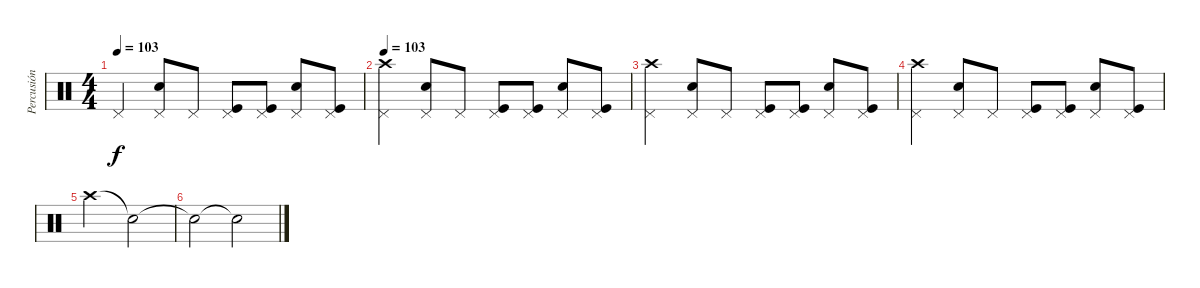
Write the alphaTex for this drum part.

\track ("Percusión" "Percusión") {instrument percussion}
\staff {score}
\articulation defaults
\ts (4 4)
\tempo 103
\clef neutral
\ks c "Pedal Hi-Hat (hit)".4{dy f}
("Pedal Hi-Hat (hit)" "Snare (hit) 2").8 "Pedal Hi-Hat (hit)".8 ("Pedal Hi-Hat (hit)" "Kick (hit)").8 ("Pedal Hi-Hat (hit)" "Kick (hit)").8 ("Pedal Hi-Hat (hit)" "Snare (hit) 2").8 ("Pedal Hi-Hat (hit)" "Kick (hit)").8 |
\tempo 103
("Crash high (hit)" "Pedal Hi-Hat (hit)").4 ("Pedal Hi-Hat (hit)" "Snare (hit) 2").8 "Pedal Hi-Hat (hit)".8 ("Pedal Hi-Hat (hit)" "Kick (hit)").8 ("Pedal Hi-Hat (hit)" "Kick (hit)").8 ("Pedal Hi-Hat (hit)" "Snare (hit) 2").8 ("Pedal Hi-Hat (hit)" "Kick (hit)").8 |
("Crash high (hit)" "Pedal Hi-Hat (hit)").4 ("Pedal Hi-Hat (hit)" "Snare (hit) 2").8 "Pedal Hi-Hat (hit)".8 ("Pedal Hi-Hat (hit)" "Kick (hit)").8 ("Pedal Hi-Hat (hit)" "Kick (hit)").8 ("Pedal Hi-Hat (hit)" "Snare (hit) 2").8 ("Pedal Hi-Hat (hit)" "Kick (hit)").8 |
("Crash high (hit)" "Pedal Hi-Hat (hit)").4 ("Pedal Hi-Hat (hit)" "Snare (hit)").8 "Pedal Hi-Hat (hit)".8 ("Pedal Hi-Hat (hit)" "Kick (hit)").8 ("Pedal Hi-Hat (hit)" "Kick (hit)").8 ("Pedal Hi-Hat (hit)" "Snare (hit) 2").8 ("Pedal Hi-Hat (hit)" "Kick (hit)").8 |
"Crash high (hit)".2 "Snare (hit)"{t}.2 |
"Snare (hit)"{t}.2 "Snare (hit)"{t}.2
